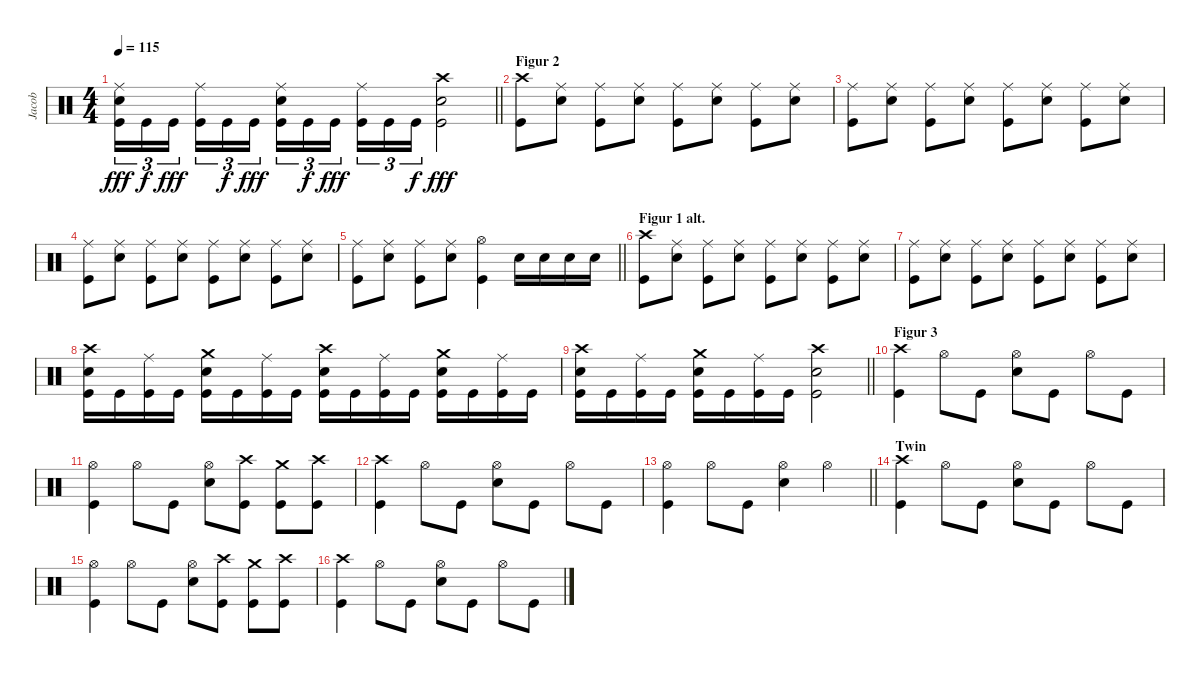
\track ("Jacob" "Jacob") {instrument percussion}
\staff {score}
\articulation defaults
\ts (4 4)
\tempo 115
\clef neutral
\barLineRight lightlight
\ks c
("Kick (hit)" "Electric Snare (hit)" "Ride (middle)").16{tu (3 2) dy fff} "Kick (hit)".16{tu (3 2) dy f} "Kick (hit)".16{tu (3 2) dy fff} ("Kick (hit)" "Ride (middle)").16{tu (3 2)} "Kick (hit)".16{tu (3 2) dy f} "Kick (hit)".16{tu (3 2) dy fff} ("Kick (hit)" "Electric Snare (hit)" "Ride (middle)").16{tu (3 2)} "Kick (hit)".16{tu (3 2) dy f} "Kick (hit)".16{tu (3 2) dy fff} ("Kick (hit)" "Ride (middle)").16{tu (3 2)} "Kick (hit)".16{tu (3 2)} "Kick (hit)".16{tu (3 2) dy f} ("Kick (hit)" "Electric Snare (hit)" "Crash high (hit)").2{dy fff} |
\section ("" "Figur 2")
("Kick (hit)" "Crash high (hit)").8 ("Electric Snare (hit)" "Ride (middle)").8 ("Kick (hit)" "Ride (middle)").8 ("Electric Snare (hit)" "Ride (middle)").8 ("Kick (hit)" "Ride (middle)").8 ("Electric Snare (hit)" "Ride (middle)").8 ("Kick (hit)" "Ride (middle)").8 ("Electric Snare (hit)" "Ride (middle)").8 |
("Kick (hit)" "Ride (middle)").8 ("Electric Snare (hit)" "Ride (middle)").8 ("Kick (hit)" "Ride (middle)").8 ("Electric Snare (hit)" "Ride (middle)").8 ("Kick (hit)" "Ride (middle)").8 ("Electric Snare (hit)" "Ride (middle)").8 ("Kick (hit)" "Ride (middle)").8 ("Electric Snare (hit)" "Ride (middle)").8 |
("Kick (hit)" "Ride (middle)").8 ("Electric Snare (hit)" "Ride (middle)").8 ("Kick (hit)" "Ride (middle)").8 ("Electric Snare (hit)" "Ride (middle)").8 ("Kick (hit)" "Ride (middle)").8 ("Electric Snare (hit)" "Ride (middle)").8 ("Kick (hit)" "Ride (middle)").8 ("Electric Snare (hit)" "Ride (middle)").8 |
\barLineRight lightlight
("Kick (hit)" "Ride (middle)").8 ("Electric Snare (hit)" "Ride (middle)").8 ("Kick (hit)" "Ride (middle)").8 ("Electric Snare (hit)" "Ride (middle)").8 ("Kick (hit)" "Hi-Hat (open)").4 "Electric Snare (hit)".16 "Electric Snare (hit)".16 "Electric Snare (hit)".16 "Electric Snare (hit)".16 |
\section ("" "Figur 1 alt.")
("Kick (hit)" "Crash high (hit)").8 ("Electric Snare (hit)" "Ride (middle)").8 ("Kick (hit)" "Ride (middle)").8 ("Electric Snare (hit)" "Ride (middle)").8 ("Kick (hit)" "Ride (middle)").8 ("Electric Snare (hit)" "Ride (middle)").8 ("Kick (hit)" "Ride (middle)").8 ("Electric Snare (hit)" "Ride (middle)").8 |
("Kick (hit)" "Ride (middle)").8 ("Electric Snare (hit)" "Ride (middle)").8 ("Kick (hit)" "Ride (middle)").8 ("Electric Snare (hit)" "Ride (middle)").8 ("Kick (hit)" "Ride (middle)").8 ("Electric Snare (hit)" "Ride (middle)").8 ("Kick (hit)" "Ride (middle)").8 ("Electric Snare (hit)" "Ride (middle)").8 |
("Kick (hit)" "Electric Snare (hit)" "Crash high (hit)").16 "Kick (hit)".16 ("Kick (hit)" "Ride (middle)").16 "Kick (hit)".16 ("Kick (hit)" "Electric Snare (hit)" "Crash medium (hit)").16 "Kick (hit)".16 ("Kick (hit)" "Ride (middle)").16 "Kick (hit)".16 ("Kick (hit)" "Electric Snare (hit)" "Crash high (hit)").16 "Kick (hit)".16 ("Kick (hit)" "Ride (middle)").16 "Kick (hit)".16 ("Kick (hit)" "Electric Snare (hit)" "Crash medium (hit)").16 "Kick (hit)".16 ("Kick (hit)" "Ride (middle)").16 "Kick (hit)".16 |
\barLineRight lightlight
("Kick (hit)" "Electric Snare (hit)" "Crash high (hit)").16 "Kick (hit)".16 ("Kick (hit)" "Ride (middle)").16 "Kick (hit)".16 ("Kick (hit)" "Electric Snare (hit)" "Crash medium (hit)").16 "Kick (hit)".16 ("Kick (hit)" "Ride (middle)").16 "Kick (hit)".16 ("Kick (hit)" "Electric Snare (hit)" "Crash high (hit)").2 |
\section ("" "Figur 3")
("Kick (hit)" "Crash high (hit)").4 "Hi-Hat (open)".8 "Kick (hit)".8 ("Electric Snare (hit)" "Hi-Hat (open)").8 "Kick (hit)".8 "Hi-Hat (open)".8 "Kick (hit)".8 |
("Kick (hit)" "Hi-Hat (open)").4 "Hi-Hat (open)".8 "Kick (hit)".8 ("Electric Snare (hit)" "Hi-Hat (open)").8 ("Kick (hit)" "Crash high (hit)").8 ("Kick (hit)" "Crash medium (hit)").8 ("Kick (hit)" "Crash high (hit)").8 |
("Kick (hit)" "Crash high (hit)").4 "Hi-Hat (open)".8 "Kick (hit)".8 ("Electric Snare (hit)" "Hi-Hat (open)").8 "Kick (hit)".8 "Hi-Hat (open)".8 "Kick (hit)".8 |
\barLineRight lightlight
("Kick (hit)" "Hi-Hat (open)").4 "Hi-Hat (open)".8 "Kick (hit)".8 ("Electric Snare (hit)" "Hi-Hat (open)").4 "Hi-Hat (open)".4 |
\section ("" "Twin")
("Kick (hit)" "Crash high (hit)").4 "Hi-Hat (open)".8 "Kick (hit)".8 ("Electric Snare (hit)" "Hi-Hat (open)").8 "Kick (hit)".8 "Hi-Hat (open)".8 "Kick (hit)".8 |
("Kick (hit)" "Hi-Hat (open)").4 "Hi-Hat (open)".8 "Kick (hit)".8 ("Electric Snare (hit)" "Hi-Hat (open)").8 ("Kick (hit)" "Crash high (hit)").8 ("Kick (hit)" "Crash medium (hit)").8 ("Kick (hit)" "Crash high (hit)").8 |
("Kick (hit)" "Crash high (hit)").4 "Hi-Hat (open)".8 "Kick (hit)".8 ("Electric Snare (hit)" "Hi-Hat (open)").8 "Kick (hit)".8 "Hi-Hat (open)".8 "Kick (hit)".8
